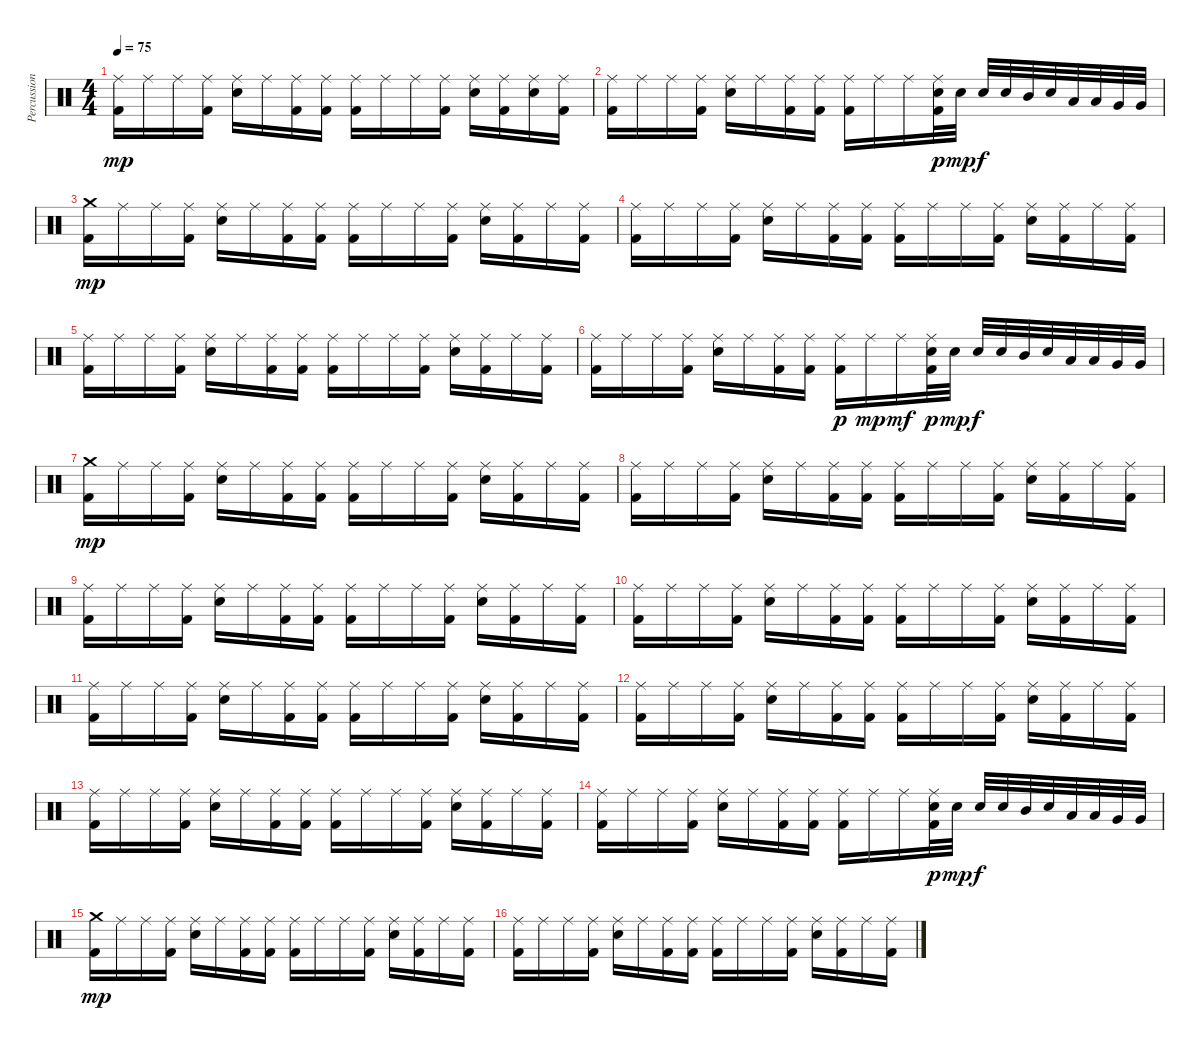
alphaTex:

\track ("Percussions" "Percussion") {instrument percussion}
\staff {score}
\articulation defaults
\ts (4 4)
\tempo 75
\clef neutral
\ks c
("Ride (middle)" "Kick (hit) 2").16{dy mp} "Ride (middle)".16 "Ride (middle)".16 ("Ride (middle)" "Kick (hit) 2").16 ("Ride (middle)" "Snare (hit) 2").16 "Ride (middle)".16 ("Ride (middle)" "Kick (hit) 2").16 ("Ride (middle)" "Kick (hit) 2").16 ("Ride (middle)" "Kick (hit) 2").16 "Ride (middle)".16 "Ride (middle)".16 ("Ride (middle)" "Kick (hit) 2").16 ("Ride (middle)" "Snare (hit) 2").16 ("Ride (middle)" "Kick (hit) 2").16 ("Ride (middle)" "Snare (hit) 2").16 ("Ride (middle)" "Kick (hit) 2").16 |
("Ride (middle)" "Kick (hit) 2").16 "Ride (middle)".16 "Ride (middle)".16 ("Ride (middle)" "Kick (hit) 2").16 ("Ride (middle)" "Snare (hit) 2").16 "Ride (middle)".16 ("Ride (middle)" "Kick (hit) 2").16 ("Ride (middle)" "Kick (hit) 2").16 ("Ride (middle)" "Kick (hit) 2").16 "Ride (middle)".16 "Ride (middle)".16 ("Ride (middle)" "Snare (hit) 2" "Kick (hit) 2").32{dy p} "Snare (hit) 2".32{dy mp} "Snare (hit) 2".32{dy f} "Snare (hit) 2".32 "Mid Tom (hit)".32 "Snare (hit) 2".32 "Low Tom (hit)".32 "Low Tom (hit)".32 "Very Low Tom (hit)".32 "Very Low Tom (hit)".32 |
("Crash medium (hit)" "Kick (hit) 2").16{dy mp} "Ride (middle)".16 "Ride (middle)".16 ("Ride (middle)" "Kick (hit) 2").16 ("Ride (middle)" "Snare (hit) 2").16 "Ride (middle)".16 ("Ride (middle)" "Kick (hit) 2").16 ("Ride (middle)" "Kick (hit) 2").16 ("Ride (middle)" "Kick (hit) 2").16 "Ride (middle)".16 "Ride (middle)".16 ("Ride (middle)" "Kick (hit) 2").16 ("Ride (middle)" "Snare (hit) 2").16 ("Ride (middle)" "Kick (hit) 2").16 "Ride (middle)".16 ("Ride (middle)" "Kick (hit) 2").16 |
("Ride (middle)" "Kick (hit) 2").16 "Ride (middle)".16 "Ride (middle)".16 ("Ride (middle)" "Kick (hit) 2").16 ("Ride (middle)" "Snare (hit) 2").16 "Ride (middle)".16 ("Ride (middle)" "Kick (hit) 2").16 ("Ride (middle)" "Kick (hit) 2").16 ("Ride (middle)" "Kick (hit) 2").16 "Ride (middle)".16 "Ride (middle)".16 ("Ride (middle)" "Kick (hit) 2").16 ("Ride (middle)" "Snare (hit) 2").16 ("Ride (middle)" "Kick (hit) 2").16 "Ride (middle)".16 ("Ride (middle)" "Kick (hit) 2").16 |
("Ride (middle)" "Kick (hit) 2").16 "Ride (middle)".16 "Ride (middle)".16 ("Ride (middle)" "Kick (hit) 2").16 ("Ride (middle)" "Snare (hit) 2").16 "Ride (middle)".16 ("Ride (middle)" "Kick (hit) 2").16 ("Ride (middle)" "Kick (hit) 2").16 ("Ride (middle)" "Kick (hit) 2").16 "Ride (middle)".16 "Ride (middle)".16 ("Ride (middle)" "Kick (hit) 2").16 ("Ride (middle)" "Snare (hit) 2").16 ("Ride (middle)" "Kick (hit) 2").16 "Ride (middle)".16 ("Ride (middle)" "Kick (hit) 2").16 |
("Ride (middle)" "Kick (hit) 2").16 "Ride (middle)".16 "Ride (middle)".16 ("Ride (middle)" "Kick (hit) 2").16 ("Ride (middle)" "Snare (hit) 2").16 "Ride (middle)".16 ("Ride (middle)" "Kick (hit) 2").16 ("Ride (middle)" "Kick (hit) 2").16 ("Ride (middle)" "Kick (hit) 2").16{dy p} "Ride (middle)".16{dy mp} "Ride (middle)".16{dy mf} ("Ride (middle)" "Snare (hit) 2" "Kick (hit) 2").32{dy p} "Snare (hit) 2".32{dy mp} "Snare (hit) 2".32{dy f} "Snare (hit) 2".32 "Mid Tom (hit)".32 "Snare (hit) 2".32 "Low Tom (hit)".32 "Low Tom (hit)".32 "Very Low Tom (hit)".32 "Very Low Tom (hit)".32 |
("Crash medium (hit)" "Kick (hit) 2").16{dy mp} "Ride (middle)".16 "Ride (middle)".16 ("Ride (middle)" "Kick (hit) 2").16 ("Ride (middle)" "Snare (hit) 2").16 "Ride (middle)".16 ("Ride (middle)" "Kick (hit) 2").16 ("Ride (middle)" "Kick (hit) 2").16 ("Ride (middle)" "Kick (hit) 2").16 "Ride (middle)".16 "Ride (middle)".16 ("Ride (middle)" "Kick (hit) 2").16 ("Ride (middle)" "Snare (hit) 2").16 ("Ride (middle)" "Kick (hit) 2").16 "Ride (middle)".16 ("Ride (middle)" "Kick (hit) 2").16 |
("Ride (middle)" "Kick (hit) 2").16 "Ride (middle)".16 "Ride (middle)".16 ("Ride (middle)" "Kick (hit) 2").16 ("Ride (middle)" "Snare (hit) 2").16 "Ride (middle)".16 ("Ride (middle)" "Kick (hit) 2").16 ("Ride (middle)" "Kick (hit) 2").16 ("Ride (middle)" "Kick (hit) 2").16 "Ride (middle)".16 "Ride (middle)".16 ("Ride (middle)" "Kick (hit) 2").16 ("Ride (middle)" "Snare (hit) 2").16 ("Ride (middle)" "Kick (hit) 2").16 "Ride (middle)".16 ("Ride (middle)" "Kick (hit) 2").16 |
("Ride (middle)" "Kick (hit) 2").16 "Ride (middle)".16 "Ride (middle)".16 ("Ride (middle)" "Kick (hit) 2").16 ("Ride (middle)" "Snare (hit) 2").16 "Ride (middle)".16 ("Ride (middle)" "Kick (hit) 2").16 ("Ride (middle)" "Kick (hit) 2").16 ("Ride (middle)" "Kick (hit) 2").16 "Ride (middle)".16 "Ride (middle)".16 ("Ride (middle)" "Kick (hit) 2").16 ("Ride (middle)" "Snare (hit) 2").16 ("Ride (middle)" "Kick (hit) 2").16 "Ride (middle)".16 ("Ride (middle)" "Kick (hit) 2").16 |
("Ride (middle)" "Kick (hit) 2").16 "Ride (middle)".16 "Ride (middle)".16 ("Ride (middle)" "Kick (hit) 2").16 ("Ride (middle)" "Snare (hit) 2").16 "Ride (middle)".16 ("Ride (middle)" "Kick (hit) 2").16 ("Ride (middle)" "Kick (hit) 2").16 ("Ride (middle)" "Kick (hit) 2").16 "Ride (middle)".16 "Ride (middle)".16 ("Ride (middle)" "Kick (hit) 2").16 ("Ride (middle)" "Snare (hit) 2").16 ("Ride (middle)" "Kick (hit) 2").16 "Ride (middle)".16 ("Ride (middle)" "Kick (hit) 2").16 |
("Ride (middle)" "Kick (hit) 2").16 "Ride (middle)".16 "Ride (middle)".16 ("Ride (middle)" "Kick (hit) 2").16 ("Ride (middle)" "Snare (hit) 2").16 "Ride (middle)".16 ("Ride (middle)" "Kick (hit) 2").16 ("Ride (middle)" "Kick (hit) 2").16 ("Ride (middle)" "Kick (hit) 2").16 "Ride (middle)".16 "Ride (middle)".16 ("Ride (middle)" "Kick (hit) 2").16 ("Ride (middle)" "Snare (hit) 2").16 ("Ride (middle)" "Kick (hit) 2").16 "Ride (middle)".16 ("Ride (middle)" "Kick (hit) 2").16 |
("Ride (middle)" "Kick (hit) 2").16 "Ride (middle)".16 "Ride (middle)".16 ("Ride (middle)" "Kick (hit) 2").16 ("Ride (middle)" "Snare (hit) 2").16 "Ride (middle)".16 ("Ride (middle)" "Kick (hit) 2").16 ("Ride (middle)" "Kick (hit) 2").16 ("Ride (middle)" "Kick (hit) 2").16 "Ride (middle)".16 "Ride (middle)".16 ("Ride (middle)" "Kick (hit) 2").16 ("Ride (middle)" "Snare (hit) 2").16 ("Ride (middle)" "Kick (hit) 2").16 "Ride (middle)".16 ("Ride (middle)" "Kick (hit) 2").16 |
("Ride (middle)" "Kick (hit) 2").16 "Ride (middle)".16 "Ride (middle)".16 ("Ride (middle)" "Kick (hit) 2").16 ("Ride (middle)" "Snare (hit) 2").16 "Ride (middle)".16 ("Ride (middle)" "Kick (hit) 2").16 ("Ride (middle)" "Kick (hit) 2").16 ("Ride (middle)" "Kick (hit) 2").16 "Ride (middle)".16 "Ride (middle)".16 ("Ride (middle)" "Kick (hit) 2").16 ("Ride (middle)" "Snare (hit) 2").16 ("Ride (middle)" "Kick (hit) 2").16 "Ride (middle)".16 ("Ride (middle)" "Kick (hit) 2").16 |
("Ride (middle)" "Kick (hit) 2").16 "Ride (middle)".16 "Ride (middle)".16 ("Ride (middle)" "Kick (hit) 2").16 ("Ride (middle)" "Snare (hit) 2").16 "Ride (middle)".16 ("Ride (middle)" "Kick (hit) 2").16 ("Ride (middle)" "Kick (hit) 2").16 ("Ride (middle)" "Kick (hit) 2").16 "Ride (middle)".16 "Ride (middle)".16 ("Ride (middle)" "Snare (hit) 2" "Kick (hit) 2").32{dy p} "Snare (hit) 2".32{dy mp} "Snare (hit) 2".32{dy f} "Snare (hit) 2".32 "Mid Tom (hit)".32 "Snare (hit) 2".32 "Low Tom (hit)".32 "Low Tom (hit)".32 "Very Low Tom (hit)".32 "Very Low Tom (hit)".32 |
("Crash medium (hit)" "Kick (hit) 2").16{dy mp} "Ride (middle)".16 "Ride (middle)".16 ("Ride (middle)" "Kick (hit) 2").16 ("Ride (middle)" "Snare (hit) 2").16 "Ride (middle)".16 ("Ride (middle)" "Kick (hit) 2").16 ("Ride (middle)" "Kick (hit) 2").16 ("Ride (middle)" "Kick (hit) 2").16 "Ride (middle)".16 "Ride (middle)".16 ("Ride (middle)" "Kick (hit) 2").16 ("Ride (middle)" "Snare (hit) 2").16 ("Ride (middle)" "Kick (hit) 2").16 "Ride (middle)".16 ("Ride (middle)" "Kick (hit) 2").16 |
("Ride (middle)" "Kick (hit) 2").16 "Ride (middle)".16 "Ride (middle)".16 ("Ride (middle)" "Kick (hit) 2").16 ("Ride (middle)" "Snare (hit) 2").16 "Ride (middle)".16 ("Ride (middle)" "Kick (hit) 2").16 ("Ride (middle)" "Kick (hit) 2").16 ("Ride (middle)" "Kick (hit) 2").16 "Ride (middle)".16 "Ride (middle)".16 ("Ride (middle)" "Kick (hit) 2").16 ("Ride (middle)" "Snare (hit) 2").16 ("Ride (middle)" "Kick (hit) 2").16 "Ride (middle)".16 ("Ride (middle)" "Kick (hit) 2").16
